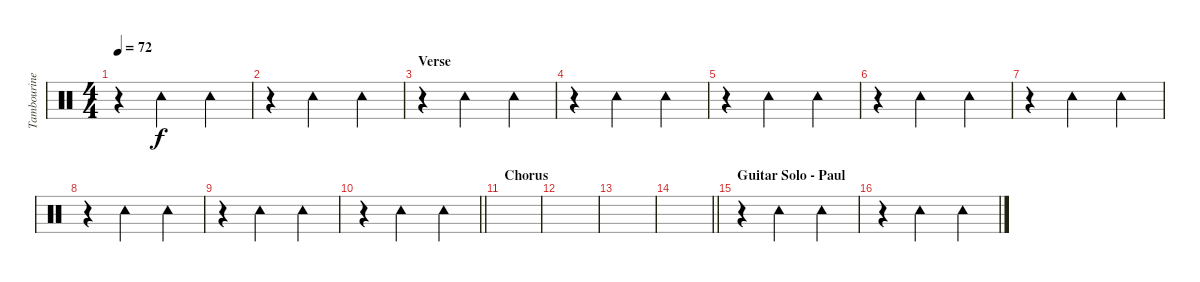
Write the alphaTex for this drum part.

\track ("Tambourine" "Tambourine") {instrument percussion}
\staff {score}
\articulation defaults
\ts (4 4)
\tempo 72
\clef neutral
\ks c
r.4{dy f} "Tambourine (hit)".2 "Tambourine (hit)".4 |
r.4 "Tambourine (hit)".2 "Tambourine (hit)".4 |
\section ("" "Verse")
r.4 "Tambourine (hit)".2 "Tambourine (hit)".4 |
r.4 "Tambourine (hit)".2 "Tambourine (hit)".4 |
r.4 "Tambourine (hit)".2 "Tambourine (hit)".4 |
r.4 "Tambourine (hit)".2 "Tambourine (hit)".4 |
r.4 "Tambourine (hit)".2 "Tambourine (hit)".4 |
r.4 "Tambourine (hit)".2 "Tambourine (hit)".4 |
r.4 "Tambourine (hit)".2 "Tambourine (hit)".4 |
\barLineRight lightlight
r.4 "Tambourine (hit)".2 "Tambourine (hit)".4 |
\section ("" "Chorus")
|
|
|
\barLineRight lightlight
|
\section ("" "Guitar Solo - Paul")
r.4 "Tambourine (hit)".2 "Tambourine (hit)".4 |
r.4 "Tambourine (hit)".2 "Tambourine (hit)".4
